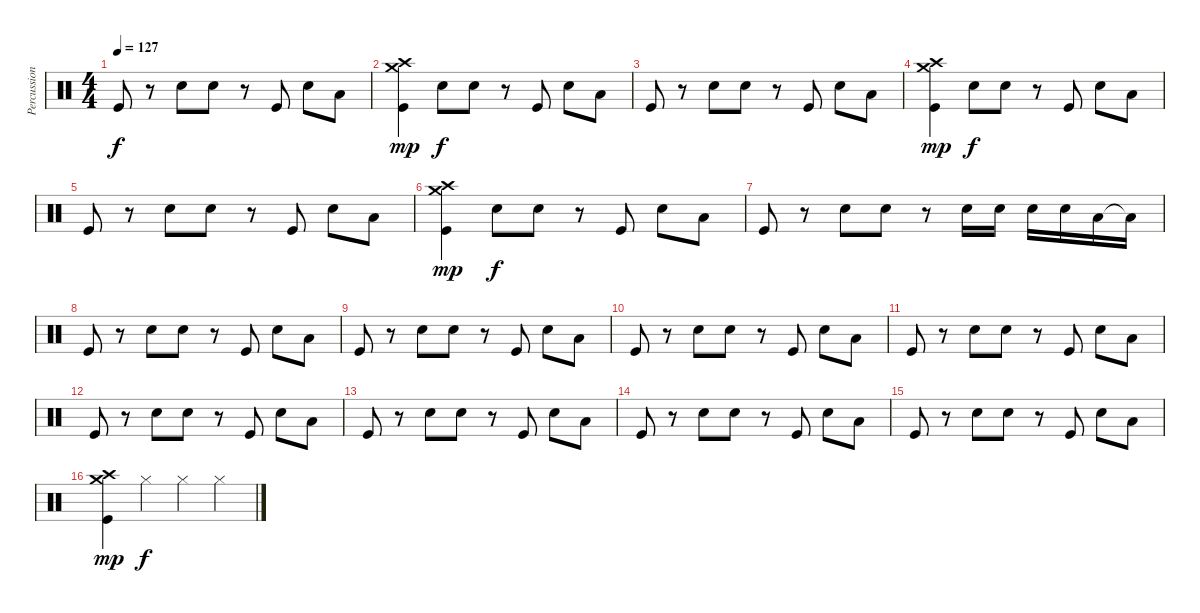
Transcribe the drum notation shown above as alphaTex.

\track ("Percussion" "Percussion") {instrument percussion}
\staff {score}
\articulation defaults
\ts (4 4)
\tempo 127
\clef neutral
\ks c "Kick (hit)".8{dy f}
r.8 "Snare (hit) 2".8 "Snare (hit) 2".8 r.8 "Kick (hit)".8 "Snare (hit) 2".8 "Low Floor Tom (hit)".8 |
("Crash medium (hit)" "Crash high (hit)" "Kick (hit)").4{dy mp} "Snare (hit) 2".8{dy f} "Snare (hit) 2".8 r.8 "Kick (hit)".8 "Snare (hit) 2".8 "Low Floor Tom (hit)".8 |
"Kick (hit)".8 r.8 "Snare (hit) 2".8 "Snare (hit) 2".8 r.8 "Kick (hit)".8 "Snare (hit) 2".8 "Low Floor Tom (hit)".8 |
("Crash medium (hit)" "Crash high (hit)" "Kick (hit)").4{dy mp} "Snare (hit) 2".8{dy f} "Snare (hit) 2".8 r.8 "Kick (hit)".8 "Snare (hit) 2".8 "Low Floor Tom (hit)".8 |
"Kick (hit)".8 r.8 "Snare (hit) 2".8 "Snare (hit) 2".8 r.8 "Kick (hit)".8 "Snare (hit) 2".8 "Low Floor Tom (hit)".8 |
("Crash medium (hit)" "Crash high (hit)" "Kick (hit)").4{dy mp} "Snare (hit) 2".8{dy f} "Snare (hit) 2".8 r.8 "Kick (hit)".8 "Snare (hit) 2".8 "Low Floor Tom (hit)".8 |
"Kick (hit)".8 r.8 "Snare (hit) 2".8 "Snare (hit) 2".8 r.8 "Snare (hit) 2".16 "Snare (hit) 2".16 "Snare (hit) 2".16 "Snare (hit) 2".16 "Low Floor Tom (hit)".16 "Low Floor Tom (hit)"{t}.16 |
"Kick (hit)".8 r.8 "Snare (hit) 2".8 "Snare (hit) 2".8 r.8 "Kick (hit)".8 "Snare (hit) 2".8 "Low Floor Tom (hit)".8 |
"Kick (hit)".8 r.8 "Snare (hit) 2".8 "Snare (hit) 2".8 r.8 "Kick (hit)".8 "Snare (hit) 2".8 "Low Floor Tom (hit)".8 |
"Kick (hit)".8 r.8 "Snare (hit) 2".8 "Snare (hit) 2".8 r.8 "Kick (hit)".8 "Snare (hit) 2".8 "Low Floor Tom (hit)".8 |
"Kick (hit)".8 r.8 "Snare (hit) 2".8 "Snare (hit) 2".8 r.8 "Kick (hit)".8 "Snare (hit) 2".8 "Low Floor Tom (hit)".8 |
"Kick (hit)".8 r.8 "Snare (hit) 2".8 "Snare (hit) 2".8 r.8 "Kick (hit)".8 "Snare (hit) 2".8 "Low Floor Tom (hit)".8 |
"Kick (hit)".8 r.8 "Snare (hit) 2".8 "Snare (hit) 2".8 r.8 "Kick (hit)".8 "Snare (hit) 2".8 "Low Floor Tom (hit)".8 |
"Kick (hit)".8 r.8 "Snare (hit) 2".8 "Snare (hit) 2".8 r.8 "Kick (hit)".8 "Snare (hit) 2".8 "Low Floor Tom (hit)".8 |
"Kick (hit)".8 r.8 "Snare (hit) 2".8 "Snare (hit) 2".8 r.8 "Kick (hit)".8 "Snare (hit) 2".8 "Low Floor Tom (hit)".8 |
("Crash medium (hit)" "Crash high (hit)" "Kick (hit)").4{dy mp} "Hi-Hat (closed)".4{dy f} "Hi-Hat (closed)".4 "Hi-Hat (closed)".4
